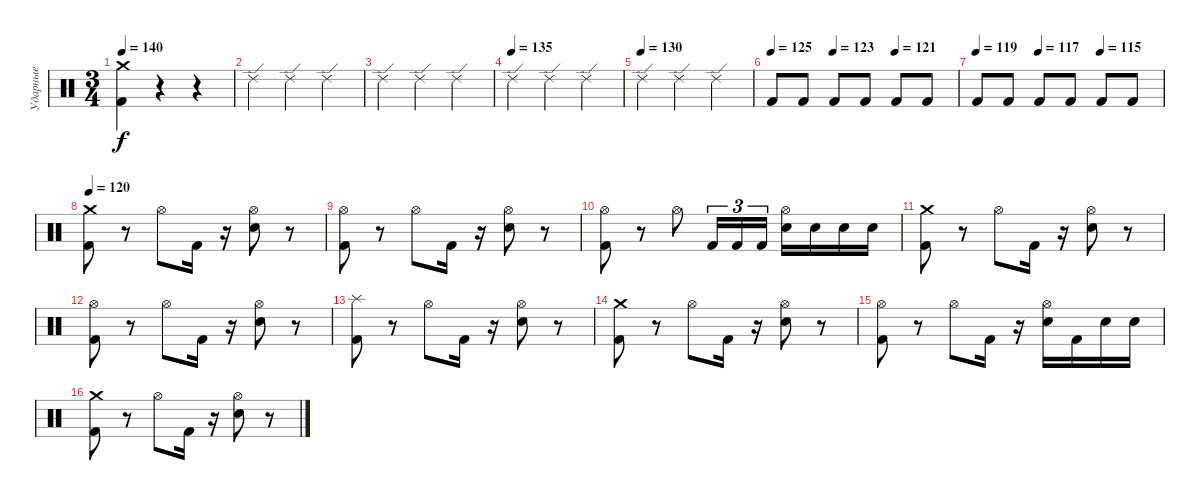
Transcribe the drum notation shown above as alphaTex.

\track ("Ударные" "Ударные") {instrument percussion}
\staff {score}
\articulation defaults
\ts (3 4)
\tempo 140
\clef neutral
\ks c
("Kick (hit) 2" "Crash medium (hit)").4{dy f} r.4 r.4 |
"Ride (edge) 2".4 "Ride (edge) 2".4 "Ride (edge) 2".4 |
"Ride (edge) 2".4 "Ride (edge) 2".4 "Ride (edge) 2".4 |
\tempo (135)
"Ride (edge) 2".4 "Ride (edge) 2".4 "Ride (edge) 2".4 |
\tempo (130)
"Ride (edge) 2".4 "Ride (edge) 2".4 "Ride (edge) 2".4 |
\tempo 125
\tempo (123 0.3333333333333333)
\tempo (121 0.6666666666666666)
"Kick (hit) 2".8 "Kick (hit) 2".8 "Kick (hit) 2".8 "Kick (hit) 2".8 "Kick (hit) 2".8 "Kick (hit) 2".8 |
\tempo 119
\tempo (117 0.3333333333333333)
\tempo (115 0.6666666666666666)
"Kick (hit) 2".8 "Kick (hit) 2".8 "Kick (hit) 2".8 "Kick (hit) 2".8 "Kick (hit) 2".8 "Kick (hit) 2".8 |
\tempo 110
\tempo 120
("Kick (hit) 2" "Crash medium (hit)").8 r.8 "Hi-Hat (open)".8 "Kick (hit) 2".16 r.16 ("Electric Snare (hit)" "Hi-Hat (open)").8 r.8 |
("Kick (hit) 2" "Hi-Hat (open)").8 r.8 "Hi-Hat (open)".8 "Kick (hit) 2".16 r.16 ("Electric Snare (hit)" "Hi-Hat (open)").8 r.8 |
("Kick (hit) 2" "Hi-Hat (open)").8 r.8 "Hi-Hat (open)".8 "Kick (hit) 2".16{tu (3 2)} "Kick (hit) 2".16{tu (3 2)} "Kick (hit) 2".16{tu (3 2)} ("Electric Snare (hit)" "Hi-Hat (open)").16 "Electric Snare (hit)".16 "Electric Snare (hit)".16 "Electric Snare (hit)".16 |
("Kick (hit) 2" "Crash medium (hit)").8 r.8 "Hi-Hat (open)".8 "Kick (hit) 2".16 r.16 ("Electric Snare (hit)" "Hi-Hat (open)").8 r.8 |
("Kick (hit) 2" "Hi-Hat (open)").8 r.8 "Hi-Hat (open)".8 "Kick (hit) 2".16 r.16 ("Electric Snare (hit)" "Hi-Hat (open)").8 r.8 |
("Kick (hit) 2" "Splash (hit)").8 r.8 "Hi-Hat (open)".8 "Kick (hit) 2".16 r.16 ("Electric Snare (hit)" "Hi-Hat (open)").8 r.8 |
("Kick (hit) 2" "Crash medium (hit)").8 r.8 "Hi-Hat (open)".8 "Kick (hit) 2".16 r.16 ("Electric Snare (hit)" "Hi-Hat (open)").8 r.8 |
("Kick (hit) 2" "Hi-Hat (open)").8 r.8 "Hi-Hat (open)".8 "Kick (hit) 2".16 r.16 ("Electric Snare (hit)" "Hi-Hat (open)").16 "Kick (hit) 2".16 "Electric Snare (hit)".16 "Electric Snare (hit)".16 |
("Kick (hit) 2" "Crash medium (hit)").8 r.8 "Hi-Hat (open)".8 "Kick (hit) 2".16 r.16 ("Electric Snare (hit)" "Hi-Hat (open)").8 r.8
